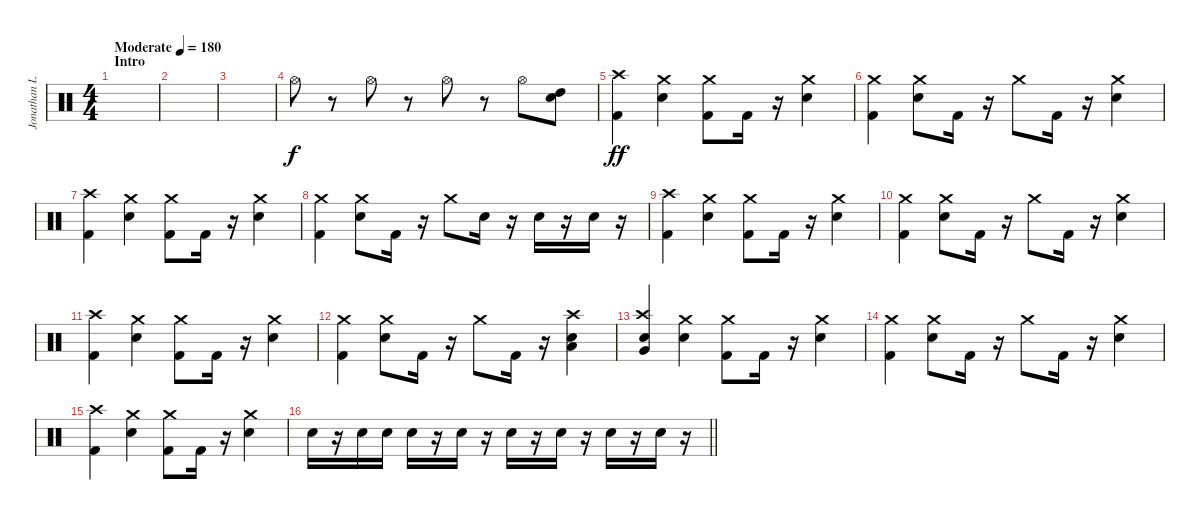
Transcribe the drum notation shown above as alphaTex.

\track ("Jonathan Lòpez" "Jonathan L") {instrument percussion}
\staff {score}
\articulation defaults
\ts (4 4)
\section ("" "Intro")
\tempo (180 "Moderate")
\clef neutral
\ks c
|
|
|
"Hi-Hat (open)".8 r.8 "Hi-Hat (open)".8 r.8 "Hi-Hat (open)".8 r.8 "Hi-Hat (open)".8 ("Electric Snare (hit)" "High Tom (hit)").8 |
("Kick (hit) 2" "Crash high (hit)").4{dy ff} ("Electric Snare (hit)" "Crash medium (hit)").4 ("Kick (hit) 2" "Crash medium (hit)").8 "Kick (hit) 2".16 r.16 ("Electric Snare (hit)" "Crash medium (hit)").4 |
("Kick (hit) 2" "Crash medium (hit)").4 ("Electric Snare (hit)" "Crash medium (hit)").8 "Kick (hit) 2".16 r.16 "Crash medium (hit)".8 "Kick (hit) 2".16 r.16 ("Electric Snare (hit)" "Crash medium (hit)").4 |
("Kick (hit) 2" "Crash high (hit)").4 ("Electric Snare (hit)" "Crash medium (hit)").4 ("Kick (hit) 2" "Crash medium (hit)").8 "Kick (hit) 2".16 r.16 ("Electric Snare (hit)" "Crash medium (hit)").4 |
("Kick (hit) 2" "Crash medium (hit)").4 ("Electric Snare (hit)" "Crash medium (hit)").8 "Kick (hit) 2".16 r.16 "Crash medium (hit)".8 "Electric Snare (hit)".16 r.16 "Electric Snare (hit)".16 r.16 "Electric Snare (hit)".16 r.16 |
("Kick (hit) 2" "Crash high (hit)").4 ("Electric Snare (hit)" "Crash medium (hit)").4 ("Kick (hit) 2" "Crash medium (hit)").8 "Kick (hit) 2".16 r.16 ("Electric Snare (hit)" "Crash medium (hit)").4 |
("Kick (hit) 2" "Crash medium (hit)").4 ("Electric Snare (hit)" "Crash medium (hit)").8 "Kick (hit) 2".16 r.16 "Crash medium (hit)".8 "Kick (hit) 2".16 r.16 ("Electric Snare (hit)" "Crash medium (hit)").4 |
("Kick (hit) 2" "Crash high (hit)").4 ("Electric Snare (hit)" "Crash medium (hit)").4 ("Kick (hit) 2" "Crash medium (hit)").8 "Kick (hit) 2".16 r.16 ("Electric Snare (hit)" "Crash medium (hit)").4 |
("Kick (hit) 2" "Crash medium (hit)").4 ("Electric Snare (hit)" "Crash medium (hit)").8 "Kick (hit) 2".16 r.16 "Crash medium (hit)".8 "Kick (hit) 2".16 r.16 ("Crash high (hit)" "Electric Snare (hit)" "Low Tom (hit)").4 |
("Electric Snare (hit)" "Very Low Tom (hit)" "Crash high (hit)").4 ("Crash medium (hit)" "Electric Snare (hit)").4 ("Crash medium (hit)" "Kick (hit) 2").8 "Kick (hit) 2".16 r.16 ("Crash medium (hit)" "Electric Snare (hit)").4 |
("Crash medium (hit)" "Kick (hit) 2").4 ("Crash medium (hit)" "Electric Snare (hit)").8 "Kick (hit) 2".16 r.16 "Crash medium (hit)".8 "Kick (hit) 2".16 r.16 ("Electric Snare (hit)" "Crash medium (hit)").4 |
("Kick (hit) 2" "Crash high (hit)").4 ("Electric Snare (hit)" "Crash medium (hit)").4 ("Kick (hit) 2" "Crash medium (hit)").8 "Kick (hit) 2".16 r.16 ("Electric Snare (hit)" "Crash medium (hit)").4 |
\barLineRight lightlight "Electric Snare (hit)".16
r.16 "Electric Snare (hit)".16 "Electric Snare (hit)".16 "Electric Snare (hit)".16 r.16 "Electric Snare (hit)".16 r.16 "Electric Snare (hit)".16 r.16 "Electric Snare (hit)".16 r.16 "Electric Snare (hit)".16 r.16 "Electric Snare (hit)".16 r.16
